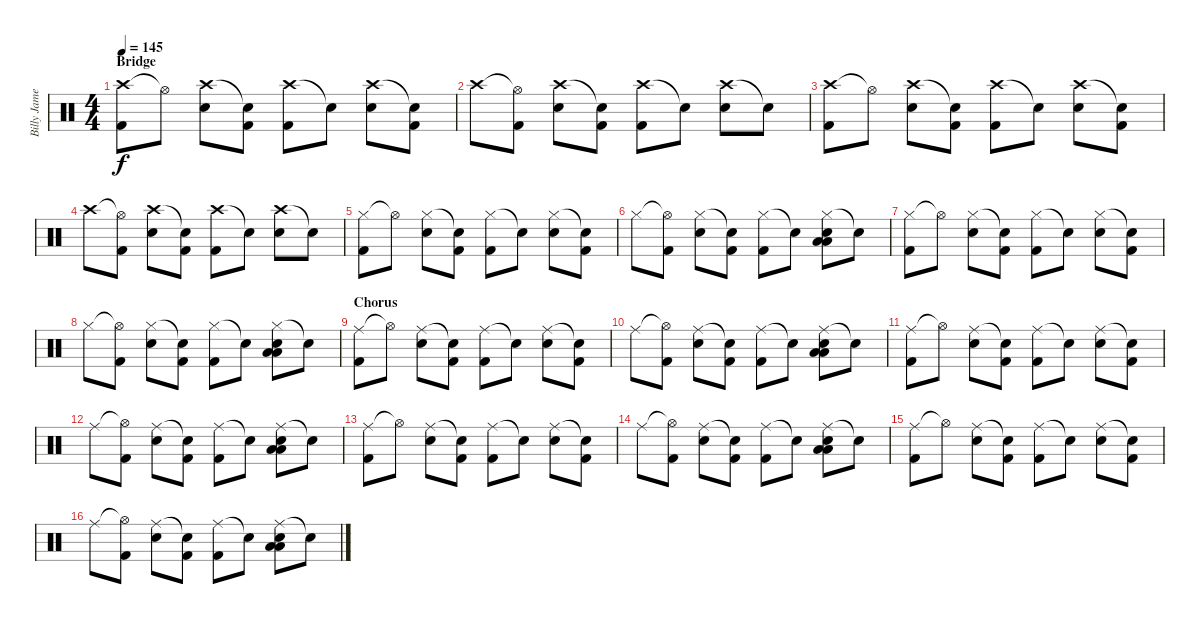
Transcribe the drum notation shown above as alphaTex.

\track ("Billy James (Drums)" "Billy Jame") {instrument percussion}
\staff {score}
\articulation defaults
\ts (4 4)
\section ("" "Bridge")
\tempo 145
\clef neutral
\ks c
("Crash high (hit)" "Kick (hit) 2").8{dy f} "Hi-Hat (open)"{t}.8 ("Crash high (hit)" "Snare (hit) 2").8 ("Snare (hit)"{t} "Kick (hit) 2").8 ("Crash high (hit)" "Kick (hit) 2").8 "Snare (hit)"{t}.8 ("Crash high (hit)" "Snare (hit) 2").8 ("Snare (hit)"{t} "Kick (hit) 2").8 |
"Crash high (hit)".8 ("Hi-Hat (open)"{t} "Kick (hit) 2").8 ("Crash high (hit)" "Snare (hit) 2").8 ("Snare (hit)"{t} "Kick (hit) 2").8 ("Crash high (hit)" "Kick (hit) 2").8 "Snare (hit)"{t}.8 ("Crash high (hit)" "Snare (hit) 2").8 "Snare (hit)"{t}.8 |
("Crash high (hit)" "Kick (hit) 2").8 "Hi-Hat (open)"{t}.8 ("Crash high (hit)" "Snare (hit) 2").8 ("Snare (hit)"{t} "Kick (hit) 2").8 ("Crash high (hit)" "Kick (hit) 2").8 "Snare (hit)"{t}.8 ("Crash high (hit)" "Snare (hit) 2").8 ("Snare (hit)"{t} "Kick (hit) 2").8 |
"Crash high (hit)".8 ("Hi-Hat (open)"{t} "Kick (hit) 2").8 ("Crash high (hit)" "Snare (hit) 2").8 ("Snare (hit)"{t} "Kick (hit) 2").8 ("Crash high (hit)" "Kick (hit) 2").8 "Snare (hit)"{t}.8 ("Crash high (hit)" "Snare (hit) 2").8 "Snare (hit)"{t}.8 |
("Hi-Hat (closed)" "Kick (hit) 2").8 "Hi-Hat (open)"{t}.8 ("Hi-Hat (closed)" "Snare (hit) 2").8 ("Snare (hit)"{t} "Kick (hit) 2").8 ("Hi-Hat (closed)" "Kick (hit) 2").8 "Snare (hit)"{t}.8 ("Hi-Hat (closed)" "Snare (hit) 2").8 ("Snare (hit)"{t} "Kick (hit) 2").8 |
"Hi-Hat (closed)".8 ("Hi-Hat (open)"{t} "Kick (hit) 2").8 ("Hi-Hat (closed)" "Snare (hit) 2").8 ("Snare (hit)"{t} "Kick (hit) 2").8 ("Hi-Hat (closed)" "Kick (hit) 2").8 "Snare (hit)"{t}.8 ("Hi-Hat (closed)" "Low Floor Tom (hit)" "Low Floor Tom (hit)" "Snare (hit) 2").8 "Snare (hit)"{t}.8 |
("Hi-Hat (closed)" "Kick (hit) 2").8 "Hi-Hat (open)"{t}.8 ("Hi-Hat (closed)" "Snare (hit) 2").8 ("Snare (hit)"{t} "Kick (hit) 2").8 ("Hi-Hat (closed)" "Kick (hit) 2").8 "Snare (hit)"{t}.8 ("Hi-Hat (closed)" "Snare (hit) 2").8 ("Snare (hit)"{t} "Kick (hit) 2").8 |
"Hi-Hat (closed)".8 ("Hi-Hat (open)"{t} "Kick (hit) 2").8 ("Hi-Hat (closed)" "Snare (hit) 2").8 ("Snare (hit)"{t} "Kick (hit) 2").8 ("Hi-Hat (closed)" "Kick (hit) 2").8 "Snare (hit)"{t}.8 ("Hi-Hat (closed)" "Low Floor Tom (hit)" "Low Floor Tom (hit)" "Snare (hit) 2").8 "Snare (hit)"{t}.8 |
\section ("" "Chorus")
("Ride (middle)" "Kick (hit) 2").8 "Hi-Hat (open)"{t}.8 ("Ride (middle)" "Snare (hit) 2").8 ("Snare (hit)"{t} "Kick (hit) 2").8 ("Ride (middle)" "Kick (hit) 2").8 "Snare (hit)"{t}.8 ("Ride (middle)" "Snare (hit) 2").8 ("Snare (hit)"{t} "Kick (hit) 2").8 |
"Ride (middle)".8 ("Hi-Hat (open)"{t} "Kick (hit) 2").8 ("Ride (middle)" "Snare (hit) 2").8 ("Snare (hit)"{t} "Kick (hit) 2").8 ("Ride (middle)" "Kick (hit) 2").8 "Snare (hit)"{t}.8 ("Ride (middle)" "Low Floor Tom (hit)" "Low Floor Tom (hit)" "Snare (hit) 2").8 "Snare (hit)"{t}.8 |
("Ride (middle)" "Kick (hit) 2").8 "Hi-Hat (open)"{t}.8 ("Ride (middle)" "Snare (hit) 2").8 ("Snare (hit)"{t} "Kick (hit) 2").8 ("Ride (middle)" "Kick (hit) 2").8 "Snare (hit)"{t}.8 ("Ride (middle)" "Snare (hit) 2").8 ("Snare (hit)"{t} "Kick (hit) 2").8 |
"Ride (middle)".8 ("Hi-Hat (open)"{t} "Kick (hit) 2").8 ("Ride (middle)" "Snare (hit) 2").8 ("Snare (hit)"{t} "Kick (hit) 2").8 ("Ride (middle)" "Kick (hit) 2").8 "Snare (hit)"{t}.8 ("Ride (middle)" "Low Floor Tom (hit)" "Low Floor Tom (hit)" "Snare (hit) 2").8 "Snare (hit)"{t}.8 |
("Ride (middle)" "Kick (hit) 2").8 "Hi-Hat (open)"{t}.8 ("Ride (middle)" "Snare (hit) 2").8 ("Snare (hit)"{t} "Kick (hit) 2").8 ("Ride (middle)" "Kick (hit) 2").8 "Snare (hit)"{t}.8 ("Ride (middle)" "Snare (hit) 2").8 ("Snare (hit)"{t} "Kick (hit) 2").8 |
"Ride (middle)".8 ("Hi-Hat (open)"{t} "Kick (hit) 2").8 ("Ride (middle)" "Snare (hit) 2").8 ("Snare (hit)"{t} "Kick (hit) 2").8 ("Ride (middle)" "Kick (hit) 2").8 "Snare (hit)"{t}.8 ("Ride (middle)" "Low Floor Tom (hit)" "Low Floor Tom (hit)" "Snare (hit) 2").8 "Snare (hit)"{t}.8 |
("Ride (middle)" "Kick (hit) 2").8 "Hi-Hat (open)"{t}.8 ("Ride (middle)" "Snare (hit) 2").8 ("Snare (hit)"{t} "Kick (hit) 2").8 ("Ride (middle)" "Kick (hit) 2").8 "Snare (hit)"{t}.8 ("Ride (middle)" "Snare (hit) 2").8 ("Snare (hit)"{t} "Kick (hit) 2").8 |
"Ride (middle)".8 ("Hi-Hat (open)"{t} "Kick (hit) 2").8 ("Ride (middle)" "Snare (hit) 2").8 ("Snare (hit)"{t} "Kick (hit) 2").8 ("Ride (middle)" "Kick (hit) 2").8 "Snare (hit)"{t}.8 ("Ride (middle)" "Low Floor Tom (hit)" "Low Floor Tom (hit)" "Snare (hit) 2").8 "Snare (hit)"{t}.8
